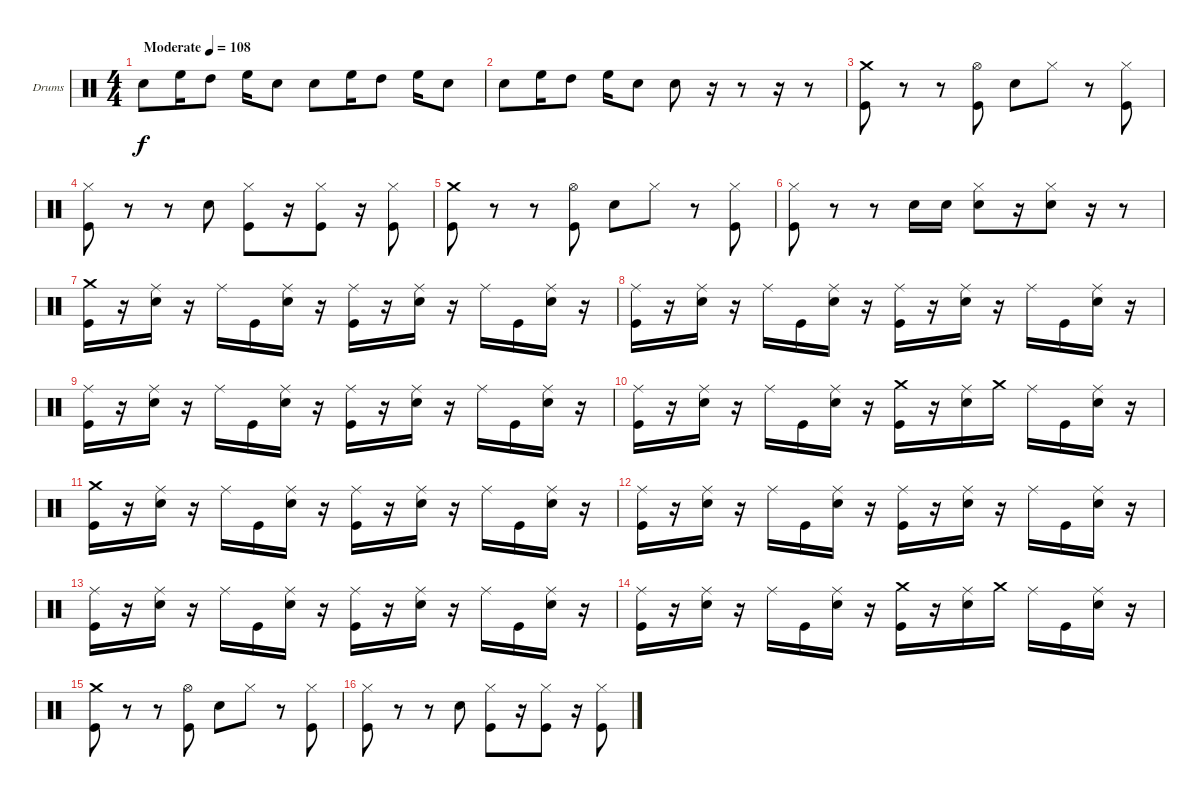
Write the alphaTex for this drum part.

\bracketExtendMode groupsimilarinstruments
\firstSystemTrackNameOrientation horizontal
\otherSystemsTrackNameOrientation horizontal
\track ("Drumkit" "Drums") {instrument percussion}
\staff {score}
\articulation defaults
\ts (4 4)
\beaming (8 2 2 2 2)
\tempo (108 "Moderate")
\clef neutral
\ks c "Snare (hit) 2".8{dy f} "High Floor Tom (hit)".16 "High Tom (hit)".8 "High Floor Tom (hit)".16 "Snare (hit) 2".8 "Snare (hit) 2".8 "High Floor Tom (hit)".16 "High Tom (hit)".8 "High Floor Tom (hit)".16 "Snare (hit) 2".8
|
"Snare (hit) 2".8 "High Floor Tom (hit)".16 "High Tom (hit)".8 "High Floor Tom (hit)".16 "Snare (hit) 2".8 "Snare (hit) 2".8 r.16 r.8 r.16 r.8 |
("Kick (hit)" "Crash medium (hit)").8 r.8 r.8 ("Kick (hit)" "Hi-Hat (open)").8 "Snare (hit) 2".8 "Hi-Hat (closed)".8 r.8 ("Kick (hit)" "Hi-Hat (closed)").8 |
("Kick (hit)" "Hi-Hat (closed)").8 r.8 r.8 "Snare (hit) 2".8 ("Kick (hit)" "Hi-Hat (closed)").8 r.16 ("Kick (hit)" "Hi-Hat (closed)").8 r.16 ("Kick (hit)" "Hi-Hat (closed)").8 |
("Kick (hit)" "Crash medium (hit)").8 r.8 r.8 ("Kick (hit)" "Hi-Hat (open)").8 "Snare (hit) 2".8 "Hi-Hat (closed)".8 r.8 ("Kick (hit)" "Hi-Hat (closed)").8 |
("Kick (hit)" "Hi-Hat (closed)").8 r.8 r.8 "Snare (hit) 2".16 "Snare (hit) 2".16 ("Snare (hit) 2" "Hi-Hat (closed)").8 r.16 ("Snare (hit) 2" "Hi-Hat (closed)").8 r.16 r.8 |
("Kick (hit)" "Crash medium (hit)").16 r.16 ("Snare (hit) 2" "Ride (middle)").16 r.16 "Ride (middle)".16 "Kick (hit)".16 ("Snare (hit) 2" "Ride (middle)").16 r.16 ("Kick (hit)" "Ride (middle)").16 r.16 ("Snare (hit) 2" "Ride (middle)").16 r.16 "Ride (middle)".16 "Kick (hit)".16 ("Snare (hit) 2" "Ride (middle)").16 r.16 |
("Kick (hit)" "Ride (middle)").16 r.16 ("Snare (hit) 2" "Ride (middle)").16 r.16 "Ride (middle)".16 "Kick (hit)".16 ("Snare (hit) 2" "Ride (middle)").16 r.16 ("Kick (hit)" "Ride (middle)").16 r.16 ("Snare (hit) 2" "Ride (middle)").16 r.16 "Ride (middle)".16 "Kick (hit)".16 ("Snare (hit) 2" "Ride (middle)").16 r.16 |
("Kick (hit)" "Ride (middle)").16 r.16 ("Snare (hit) 2" "Ride (middle)").16 r.16 "Ride (middle)".16 "Kick (hit)".16 ("Snare (hit) 2" "Ride (middle)").16 r.16 ("Kick (hit)" "Ride (middle)").16 r.16 ("Snare (hit) 2" "Ride (middle)").16 r.16 "Ride (middle)".16 "Kick (hit)".16 ("Snare (hit) 2" "Ride (middle)").16 r.16 |
("Kick (hit)" "Ride (middle)").16 r.16 ("Snare (hit) 2" "Ride (middle)").16 r.16 "Ride (middle)".16 "Kick (hit)".16 ("Snare (hit) 2" "Ride (middle)").16 r.16 ("Kick (hit)" "Crash medium (hit)").16 r.16 ("Snare (hit) 2" "Ride (middle)").16 "Crash medium (hit)".16 "Ride (middle)".16 "Kick (hit)".16 ("Snare (hit) 2" "Ride (middle)").16 r.16 |
("Kick (hit)" "Crash medium (hit)").16 r.16 ("Snare (hit) 2" "Ride (middle)").16 r.16 "Ride (middle)".16 "Kick (hit)".16 ("Snare (hit) 2" "Ride (middle)").16 r.16 ("Kick (hit)" "Ride (middle)").16 r.16 ("Snare (hit) 2" "Ride (middle)").16 r.16 "Ride (middle)".16 "Kick (hit)".16 ("Snare (hit) 2" "Ride (middle)").16 r.16 |
("Kick (hit)" "Ride (middle)").16 r.16 ("Snare (hit) 2" "Ride (middle)").16 r.16 "Ride (middle)".16 "Kick (hit)".16 ("Snare (hit) 2" "Ride (middle)").16 r.16 ("Kick (hit)" "Ride (middle)").16 r.16 ("Snare (hit) 2" "Ride (middle)").16 r.16 "Ride (middle)".16 "Kick (hit)".16 ("Snare (hit) 2" "Ride (middle)").16 r.16 |
("Kick (hit)" "Ride (middle)").16 r.16 ("Snare (hit) 2" "Ride (middle)").16 r.16 "Ride (middle)".16 "Kick (hit)".16 ("Snare (hit) 2" "Ride (middle)").16 r.16 ("Kick (hit)" "Ride (middle)").16 r.16 ("Snare (hit) 2" "Ride (middle)").16 r.16 "Ride (middle)".16 "Kick (hit)".16 ("Snare (hit) 2" "Ride (middle)").16 r.16 |
("Kick (hit)" "Ride (middle)").16 r.16 ("Snare (hit) 2" "Ride (middle)").16 r.16 "Ride (middle)".16 "Kick (hit)".16 ("Snare (hit) 2" "Ride (middle)").16 r.16 ("Kick (hit)" "Crash medium (hit)").16 r.16 ("Snare (hit) 2" "Ride (middle)").16 "Crash medium (hit)".16 "Ride (middle)".16 "Kick (hit)".16 ("Snare (hit) 2" "Ride (middle)").16 r.16 |
("Kick (hit)" "Crash medium (hit)").8 r.8 r.8 ("Kick (hit)" "Hi-Hat (open)").8 "Snare (hit) 2".8 "Hi-Hat (closed)".8 r.8 ("Kick (hit)" "Hi-Hat (closed)").8 |
("Kick (hit)" "Hi-Hat (closed)").8 r.8 r.8 "Snare (hit) 2".8 ("Kick (hit)" "Hi-Hat (closed)").8 r.16 ("Kick (hit)" "Hi-Hat (closed)").8 r.16 ("Kick (hit)" "Hi-Hat (closed)").8
